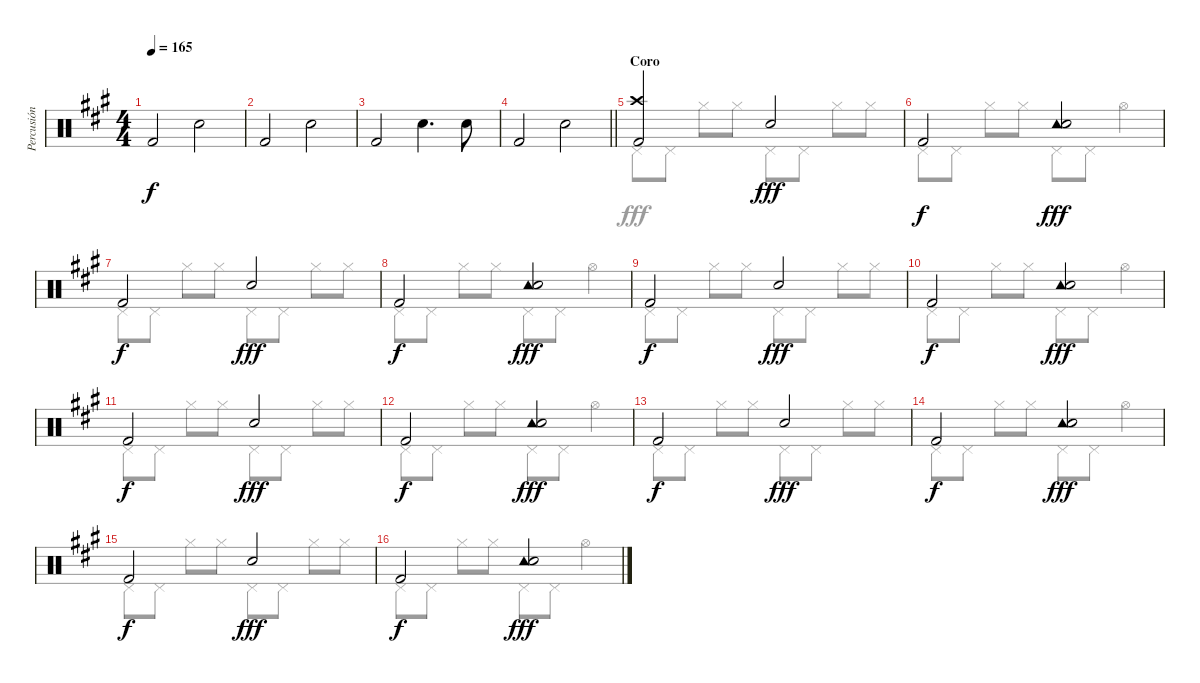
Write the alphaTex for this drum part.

\track ("Percusión" "Percusión") {instrument percussion}
\staff {score}
\articulation defaults
\voice
\ts (4 4)
\tempo 165
\clef neutral
\ks a "Kick (hit) 2".2{dy f} "Snare (hit) 2".2
|
"Kick (hit) 2".2 "Snare (hit) 2".2 |
"Kick (hit) 2".2 "Snare (hit) 2".4{d} "Snare (hit) 2".8 |
\barLineRight lightlight "Kick (hit) 2".2 "Snare (hit) 2".2
|
\section ("" "Coro")
("Crash high (hit)" "Kick (hit) 2").2 "Snare (hit) 2".2{dy fff} |
"Kick (hit) 2".2{dy f} ("Tambourine (hit)" "Snare (hit) 2").2{dy fff} |
"Kick (hit) 2".2{dy f} "Snare (hit) 2".2{dy fff} |
"Kick (hit) 2".2{dy f} ("Tambourine (hit)" "Snare (hit) 2").2{dy fff} |
"Kick (hit) 2".2{dy f} "Snare (hit) 2".2{dy fff} |
"Kick (hit) 2".2{dy f} ("Tambourine (hit)" "Snare (hit) 2").2{dy fff} |
"Kick (hit) 2".2{dy f} "Snare (hit) 2".2{dy fff} |
"Kick (hit) 2".2{dy f} ("Tambourine (hit)" "Snare (hit) 2").2{dy fff} |
"Kick (hit) 2".2{dy f} "Snare (hit) 2".2{dy fff} |
"Kick (hit) 2".2{dy f} ("Tambourine (hit)" "Snare (hit) 2").2{dy fff} |
"Kick (hit) 2".2{dy f} "Snare (hit) 2".2{dy fff} |
"Kick (hit) 2".2{dy f} ("Tambourine (hit)" "Snare (hit) 2").2{dy fff}
\voice
\clef neutral
\ottava regular
\simile none
\ks a
|
|
|
\barLineRight lightlight
|
"Pedal Hi-Hat (hit)".8 "Pedal Hi-Hat (hit)".8 "Hi-Hat (closed)".8 "Hi-Hat (closed)".8 "Pedal Hi-Hat (hit)".8 "Pedal Hi-Hat (hit)".8 "Hi-Hat (closed)".8 "Hi-Hat (closed)".8 |
"Pedal Hi-Hat (hit)".8 "Pedal Hi-Hat (hit)".8 "Hi-Hat (closed)".8 "Hi-Hat (closed)".8 "Pedal Hi-Hat (hit)".8 "Pedal Hi-Hat (hit)".8 "Hi-Hat (open)".4 |
"Pedal Hi-Hat (hit)".8 "Pedal Hi-Hat (hit)".8 "Hi-Hat (closed)".8 "Hi-Hat (closed)".8 "Pedal Hi-Hat (hit)".8 "Pedal Hi-Hat (hit)".8 "Hi-Hat (closed)".8 "Hi-Hat (closed)".8 |
"Pedal Hi-Hat (hit)".8 "Pedal Hi-Hat (hit)".8 "Hi-Hat (closed)".8 "Hi-Hat (closed)".8 "Pedal Hi-Hat (hit)".8 "Pedal Hi-Hat (hit)".8 "Hi-Hat (open)".4 |
"Pedal Hi-Hat (hit)".8 "Pedal Hi-Hat (hit)".8 "Hi-Hat (closed)".8 "Hi-Hat (closed)".8 "Pedal Hi-Hat (hit)".8 "Pedal Hi-Hat (hit)".8 "Hi-Hat (closed)".8 "Hi-Hat (closed)".8 |
"Pedal Hi-Hat (hit)".8 "Pedal Hi-Hat (hit)".8 "Hi-Hat (closed)".8 "Hi-Hat (closed)".8 "Pedal Hi-Hat (hit)".8 "Pedal Hi-Hat (hit)".8 "Hi-Hat (open)".4 |
"Pedal Hi-Hat (hit)".8 "Pedal Hi-Hat (hit)".8 "Hi-Hat (closed)".8 "Hi-Hat (closed)".8 "Pedal Hi-Hat (hit)".8 "Pedal Hi-Hat (hit)".8 "Hi-Hat (closed)".8 "Hi-Hat (closed)".8 |
"Pedal Hi-Hat (hit)".8 "Pedal Hi-Hat (hit)".8 "Hi-Hat (closed)".8 "Hi-Hat (closed)".8 "Pedal Hi-Hat (hit)".8 "Pedal Hi-Hat (hit)".8 "Hi-Hat (open)".4 |
"Pedal Hi-Hat (hit)".8 "Pedal Hi-Hat (hit)".8 "Hi-Hat (closed)".8 "Hi-Hat (closed)".8 "Pedal Hi-Hat (hit)".8 "Pedal Hi-Hat (hit)".8 "Hi-Hat (closed)".8 "Hi-Hat (closed)".8 |
"Pedal Hi-Hat (hit)".8 "Pedal Hi-Hat (hit)".8 "Hi-Hat (closed)".8 "Hi-Hat (closed)".8 "Pedal Hi-Hat (hit)".8 "Pedal Hi-Hat (hit)".8 "Hi-Hat (open)".4 |
"Pedal Hi-Hat (hit)".8 "Pedal Hi-Hat (hit)".8 "Hi-Hat (closed)".8 "Hi-Hat (closed)".8 "Pedal Hi-Hat (hit)".8 "Pedal Hi-Hat (hit)".8 "Hi-Hat (closed)".8 "Hi-Hat (closed)".8 |
"Pedal Hi-Hat (hit)".8 "Pedal Hi-Hat (hit)".8 "Hi-Hat (closed)".8 "Hi-Hat (closed)".8 "Pedal Hi-Hat (hit)".8 "Pedal Hi-Hat (hit)".8 "Hi-Hat (open)".4
